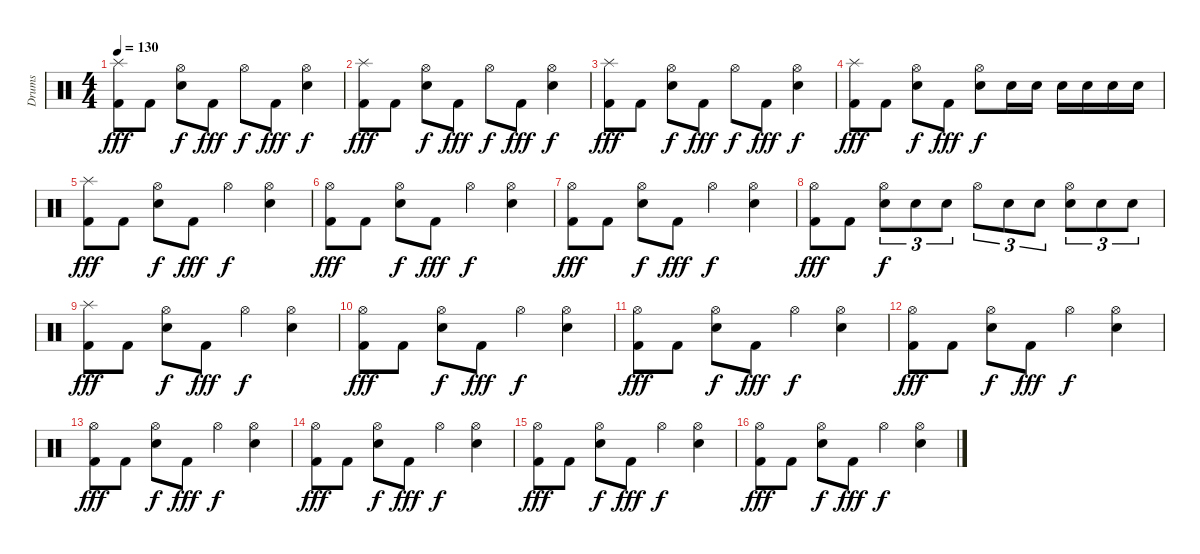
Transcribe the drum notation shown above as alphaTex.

\track ("Drums" "Drums") {instrument percussion}
\staff {score}
\articulation defaults
\ts (4 4)
\tempo 130
\clef neutral
\ks c
("Splash (hit)" "Kick (hit) 2").8{dy fff} "Kick (hit) 2".8 ("Hi-Hat (open)" "Snare (hit) 2").8{dy f} "Kick (hit) 2".8{dy fff} "Hi-Hat (open)".8{dy f} "Kick (hit) 2".8{dy fff} ("Hi-Hat (open)" "Snare (hit) 2").4{dy f} |
("Splash (hit)" "Kick (hit) 2").8{dy fff} "Kick (hit) 2".8 ("Hi-Hat (open)" "Snare (hit) 2").8{dy f} "Kick (hit) 2".8{dy fff} "Hi-Hat (open)".8{dy f} "Kick (hit) 2".8{dy fff} ("Hi-Hat (open)" "Snare (hit) 2").4{dy f} |
("Splash (hit)" "Kick (hit) 2").8{dy fff} "Kick (hit) 2".8 ("Hi-Hat (open)" "Snare (hit) 2").8{dy f} "Kick (hit) 2".8{dy fff} "Hi-Hat (open)".8{dy f} "Kick (hit) 2".8{dy fff} ("Hi-Hat (open)" "Snare (hit) 2").4{dy f} |
("Splash (hit)" "Kick (hit) 2").8{dy fff} "Kick (hit) 2".8 ("Hi-Hat (open)" "Snare (hit) 2").8{dy f} "Kick (hit) 2".8{dy fff} ("Hi-Hat (open)" "Snare (hit) 2").8{dy f} "Snare (hit) 2".16 "Snare (hit) 2".16 "Snare (hit) 2".16 "Snare (hit) 2".16 "Snare (hit) 2".16 "Snare (hit) 2".16 |
("Splash (hit)" "Kick (hit) 2").8{dy fff} "Kick (hit) 2".8 ("Hi-Hat (open)" "Snare (hit) 2").8{dy f} "Kick (hit) 2".8{dy fff} "Hi-Hat (open)".4{dy f} ("Hi-Hat (open)" "Snare (hit) 2").4 |
("Hi-Hat (open)" "Kick (hit) 2").8{dy fff} "Kick (hit) 2".8 ("Hi-Hat (open)" "Snare (hit) 2").8{dy f} "Kick (hit) 2".8{dy fff} "Hi-Hat (open)".4{dy f} ("Hi-Hat (open)" "Snare (hit) 2").4 |
("Hi-Hat (open)" "Kick (hit) 2").8{dy fff} "Kick (hit) 2".8 ("Hi-Hat (open)" "Snare (hit) 2").8{dy f} "Kick (hit) 2".8{dy fff} "Hi-Hat (open)".4{dy f} ("Hi-Hat (open)" "Snare (hit) 2").4 |
("Hi-Hat (open)" "Kick (hit) 2").8{dy fff} "Kick (hit) 2".8 ("Hi-Hat (open)" "Snare (hit) 2").8{tu (3 2) dy f} "Snare (hit) 2".8{tu (3 2)} "Snare (hit) 2".8{tu (3 2)} "Hi-Hat (open)".8{tu (3 2)} "Snare (hit) 2".8{tu (3 2)} "Snare (hit) 2".8{tu (3 2)} ("Hi-Hat (open)" "Snare (hit) 2").8{tu (3 2)} "Snare (hit) 2".8{tu (3 2)} "Snare (hit) 2".8{tu (3 2)} |
("Splash (hit)" "Kick (hit) 2").8{dy fff} "Kick (hit) 2".8 ("Hi-Hat (open)" "Snare (hit) 2").8{dy f} "Kick (hit) 2".8{dy fff} "Hi-Hat (open)".4{dy f} ("Hi-Hat (open)" "Snare (hit) 2").4 |
("Hi-Hat (open)" "Kick (hit) 2").8{dy fff} "Kick (hit) 2".8 ("Hi-Hat (open)" "Snare (hit) 2").8{dy f} "Kick (hit) 2".8{dy fff} "Hi-Hat (open)".4{dy f} ("Hi-Hat (open)" "Snare (hit) 2").4 |
("Hi-Hat (open)" "Kick (hit) 2").8{dy fff} "Kick (hit) 2".8 ("Hi-Hat (open)" "Snare (hit) 2").8{dy f} "Kick (hit) 2".8{dy fff} "Hi-Hat (open)".4{dy f} ("Hi-Hat (open)" "Snare (hit) 2").4 |
("Hi-Hat (open)" "Kick (hit) 2").8{dy fff} "Kick (hit) 2".8 ("Hi-Hat (open)" "Snare (hit) 2").8{dy f} "Kick (hit) 2".8{dy fff} "Hi-Hat (open)".4{dy f} ("Hi-Hat (open)" "Snare (hit) 2").4 |
("Hi-Hat (open)" "Kick (hit) 2").8{dy fff} "Kick (hit) 2".8 ("Hi-Hat (open)" "Snare (hit) 2").8{dy f} "Kick (hit) 2".8{dy fff} "Hi-Hat (open)".4{dy f} ("Hi-Hat (open)" "Snare (hit) 2").4 |
("Hi-Hat (open)" "Kick (hit) 2").8{dy fff} "Kick (hit) 2".8 ("Hi-Hat (open)" "Snare (hit) 2").8{dy f} "Kick (hit) 2".8{dy fff} "Hi-Hat (open)".4{dy f} ("Hi-Hat (open)" "Snare (hit) 2").4 |
("Hi-Hat (open)" "Kick (hit) 2").8{dy fff} "Kick (hit) 2".8 ("Hi-Hat (open)" "Snare (hit) 2").8{dy f} "Kick (hit) 2".8{dy fff} "Hi-Hat (open)".4{dy f} ("Hi-Hat (open)" "Snare (hit) 2").4 |
("Hi-Hat (open)" "Kick (hit) 2").8{dy fff} "Kick (hit) 2".8 ("Hi-Hat (open)" "Snare (hit) 2").8{dy f} "Kick (hit) 2".8{dy fff} "Hi-Hat (open)".4{dy f} ("Hi-Hat (open)" "Snare (hit) 2").4
